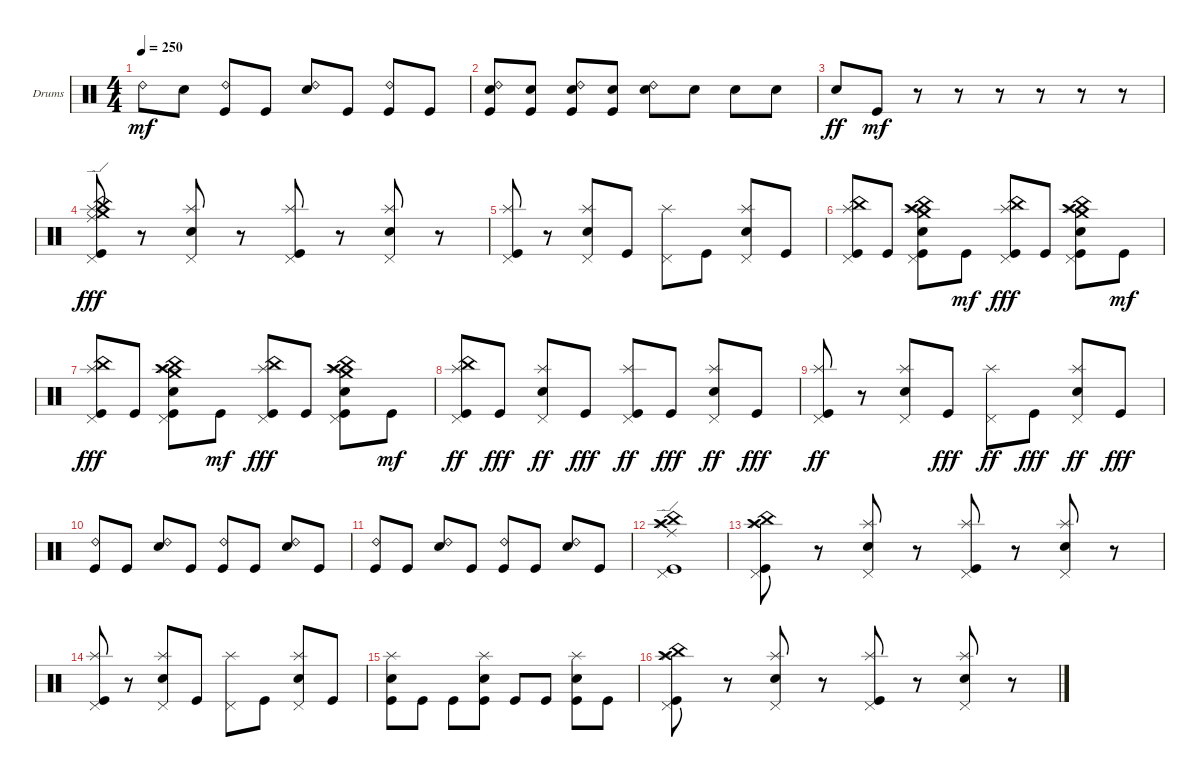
\defaultSystemsLayout 4
\bracketExtendMode groupsimilarinstruments
\firstSystemTrackNameOrientation horizontal
\otherSystemsTrackNameOrientation horizontal
\track ("Драмки" "Drums") {instrument percussion}
\staff {score}
\articulation defaults
\ts (4 4)
\tempo 250
\clef neutral
\ks c "Ride (bell) 2".8{dy mf} "Snare (hit) 2".8
("Kick (hit)" "Ride (bell) 2").8 "Kick (hit)".8 ("Snare (hit) 2" "Ride (bell) 2").8 "Kick (hit)".8 ("Kick (hit)" "Ride (bell) 2").8 "Kick (hit)".8 |
("Ride (bell) 2" "Snare (hit) 2" "Kick (hit)").8 ("Kick (hit)" "Snare (hit) 2").8 ("Kick (hit)" "Ride (bell) 2" "Snare (hit) 2").8 ("Kick (hit)" "Snare (hit) 2").8 ("Snare (hit) 2" "Ride (bell) 2").8 "Snare (hit) 2".8 "Snare (hit) 2".8 "Snare (hit) 2".8 |
"Snare (hit) 2".8{dy ff} "Kick (hit)".8{dy mf} r.8 r.8 r.8 r.8 r.8 r.8 |
("Splash (hit)" "Kick (hit)" "Crash medium (hit)" "China (hit)" "Ride (edge)" "Pedal Hi-Hat (hit)").8{dy fff} r.8 ("Snare (hit) 2" "Pedal Hi-Hat (hit)" "Splash (hit)").8 r.8 ("Splash (hit)" "Kick (hit)" "Pedal Hi-Hat (hit)").8 r.8 ("Snare (hit) 2" "Pedal Hi-Hat (hit)" "Splash (hit)").8 r.8 |
("Kick (hit)" "Splash (hit)" "Pedal Hi-Hat (hit)").8 r.8 ("Snare (hit) 2" "Splash (hit)" "Pedal Hi-Hat (hit)").8 "Kick (hit)".8 ("Splash (hit)" "Pedal Hi-Hat (hit)").8 "Kick (hit)".8 ("Snare (hit) 2" "Splash (hit)" "Pedal Hi-Hat (hit)").8 "Kick (hit)".8 |
("Kick (hit)" "Splash (hit)" "China (hit)" "Pedal Hi-Hat (hit)").8 "Kick (hit)".8 ("Snare (hit) 2" "Splash (hit)" "Pedal Hi-Hat (hit)" "China (hit)" "Crash high (hit)" "Crash medium (hit)" "Kick (hit)").8 "Kick (hit)".8{dy mf} ("Kick (hit)" "Pedal Hi-Hat (hit)" "Splash (hit)" "China (hit)").8{dy fff} "Kick (hit)".8 ("Pedal Hi-Hat (hit)" "Crash medium (hit)" "Splash (hit)" "Crash high (hit)" "China (hit)" "Snare (hit) 2" "Kick (hit)").8 "Kick (hit)".8{dy mf} |
("Kick (hit)" "Splash (hit)" "China (hit)" "Pedal Hi-Hat (hit)").8{dy fff} "Kick (hit)".8 ("Snare (hit) 2" "Splash (hit)" "Pedal Hi-Hat (hit)" "China (hit)" "Crash high (hit)" "Crash medium (hit)" "Kick (hit)").8 "Kick (hit)".8{dy mf} ("Kick (hit)" "Pedal Hi-Hat (hit)" "Splash (hit)" "China (hit)").8{dy fff} "Kick (hit)".8 ("Pedal Hi-Hat (hit)" "Crash medium (hit)" "Splash (hit)" "Crash high (hit)" "China (hit)" "Snare (hit) 2" "Kick (hit)").8 "Kick (hit)".8{dy mf} |
("Splash (hit)" "Kick (hit)" "China (hit)" "Pedal Hi-Hat (hit)").8{dy ff} "Kick (hit)".8{dy fff} ("Snare (hit) 2" "Splash (hit)" "Pedal Hi-Hat (hit)").8{dy ff} "Kick (hit)".8{dy fff} ("Kick (hit)" "Splash (hit)" "Pedal Hi-Hat (hit)").8{dy ff} "Kick (hit)".8{dy fff} ("Snare (hit) 2" "Splash (hit)" "Pedal Hi-Hat (hit)").8{dy ff} "Kick (hit)".8{dy fff} |
("Kick (hit)" "Splash (hit)" "Pedal Hi-Hat (hit)").8{dy ff} r.8 ("Snare (hit) 2" "Splash (hit)" "Pedal Hi-Hat (hit)").8 "Kick (hit)".8{dy fff} ("Splash (hit)" "Pedal Hi-Hat (hit)").8{dy ff} "Kick (hit)".8{dy fff} ("Snare (hit) 2" "Splash (hit)" "Pedal Hi-Hat (hit)").8{dy ff} "Kick (hit)".8{dy fff} |
("Kick (hit)" "Ride (bell) 2").8 "Kick (hit)".8 ("Snare (hit) 2" "Ride (bell) 2").8 "Kick (hit)".8 ("Kick (hit)" "Ride (bell) 2").8 "Kick (hit)".8 ("Snare (hit) 2" "Ride (bell) 2").8 "Kick (hit)".8 |
("Kick (hit)" "Ride (bell) 2").8 "Kick (hit)".8 ("Snare (hit) 2" "Ride (bell) 2").8 "Kick (hit)".8 ("Kick (hit)" "Ride (bell) 2").8 "Kick (hit)".8 ("Snare (hit) 2" "Ride (bell) 2").8 "Kick (hit)".8 |
("Splash (hit)" "Crash high (hit)" "China (hit)" "Ride (edge)" "Pedal Hi-Hat (hit)" "Kick (hit)").1 |
("Splash (hit)" "Kick (hit)" "Pedal Hi-Hat (hit)" "Crash high (hit)" "China (hit)").8 r.8 ("Snare (hit) 2" "Splash (hit)" "Pedal Hi-Hat (hit)").8 r.8 ("Kick (hit)" "Splash (hit)" "Pedal Hi-Hat (hit)").8 r.8 ("Snare (hit) 2" "Splash (hit)" "Pedal Hi-Hat (hit)").8 r.8 |
("Kick (hit)" "Splash (hit)" "Pedal Hi-Hat (hit)").8 r.8 ("Snare (hit) 2" "Pedal Hi-Hat (hit)" "Splash (hit)").8 "Kick (hit)".8 ("Pedal Hi-Hat (hit)" "Splash (hit)").8 "Kick (hit)".8 ("Snare (hit) 2" "Splash (hit)" "Pedal Hi-Hat (hit)").8 "Kick (hit)".8 |
("Kick (hit)" "Splash (hit)" "Snare (hit) 2").8 "Kick (hit)".8 "Kick (hit)".8 ("Kick (hit)" "Splash (hit)" "Snare (hit) 2").8 "Kick (hit)".8 "Kick (hit)".8 ("Kick (hit)" "Splash (hit)" "Snare (hit) 2").8 "Kick (hit)".8 |
("Splash (hit)" "Kick (hit)" "Pedal Hi-Hat (hit)" "Crash high (hit)" "China (hit)").8 r.8 ("Snare (hit) 2" "Splash (hit)" "Pedal Hi-Hat (hit)").8 r.8 ("Kick (hit)" "Splash (hit)" "Pedal Hi-Hat (hit)").8 r.8 ("Snare (hit) 2" "Splash (hit)" "Pedal Hi-Hat (hit)").8 r.8
